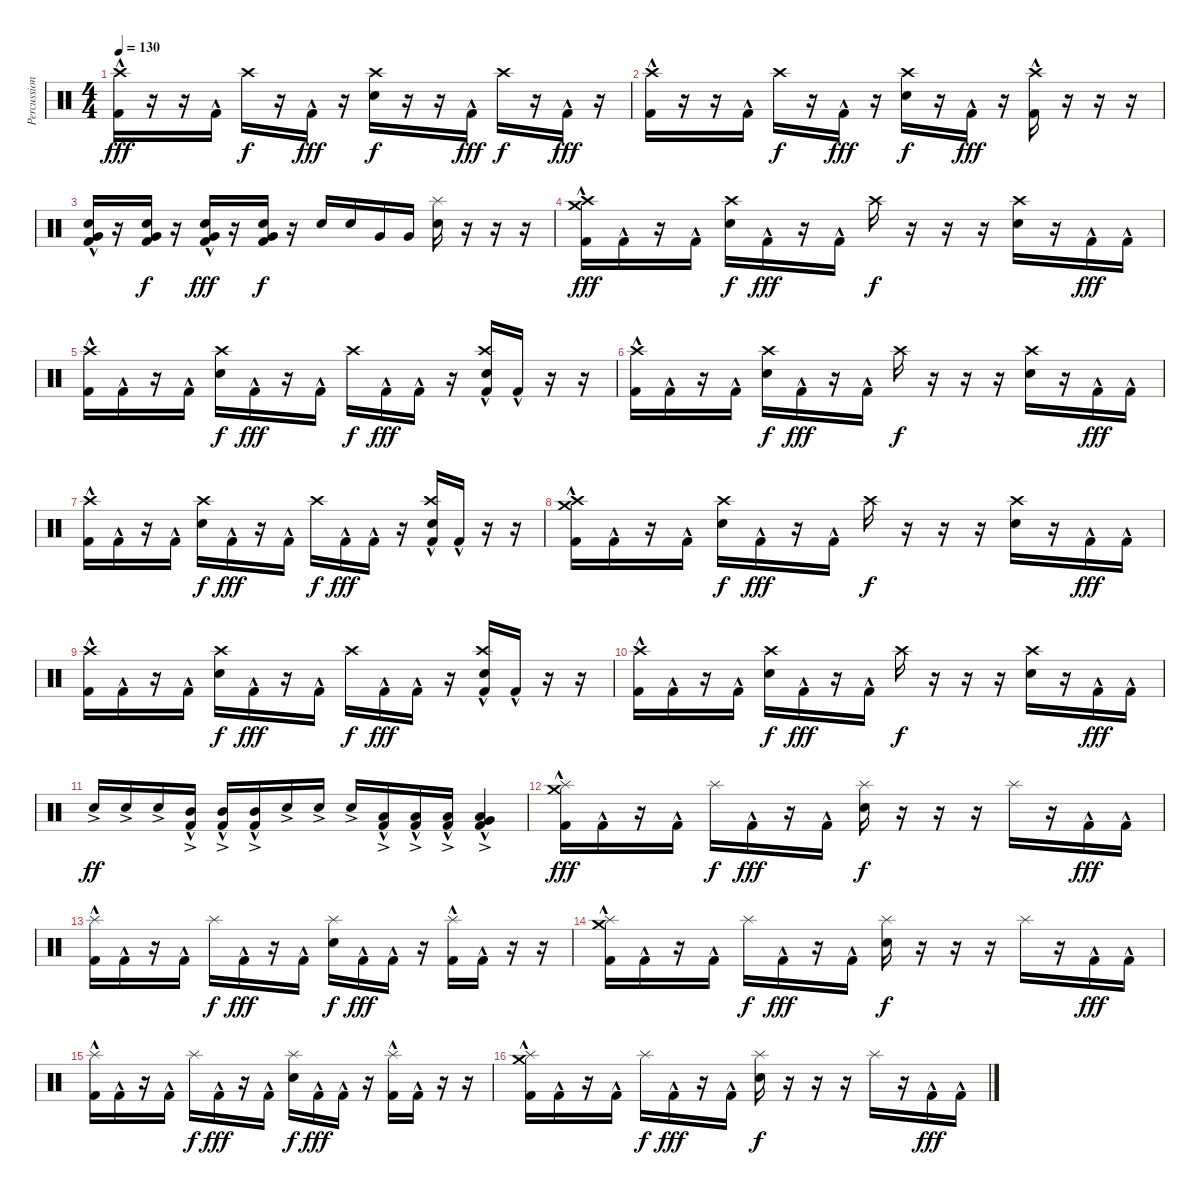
\track ("Percussion" "Percussion") {instrument percussion}
\staff {score}
\articulation defaults
\ts (4 4)
\tempo 130
\clef neutral
\ks c
("Kick (hit) 2"{hac} "Crash high (hit)").16{dy fff} r.16 r.16 "Kick (hit) 2"{hac}.16 "Crash high (hit)".16{dy f} r.16 "Kick (hit) 2"{hac}.16{dy fff} r.16 ("Electric Snare (hit)" "Crash high (hit)").16{dy f} r.16 r.16 "Kick (hit) 2"{hac}.16{dy fff} "Crash high (hit)".16{dy f} r.16 "Kick (hit) 2"{hac}.16{dy fff} r.16 |
("Kick (hit) 2"{hac} "Crash high (hit)").16 r.16 r.16 "Kick (hit) 2"{hac}.16 "Crash high (hit)".16{dy f} r.16 "Kick (hit) 2"{hac}.16{dy fff} r.16 ("Electric Snare (hit)" "Crash high (hit)").16{dy f} r.16 "Kick (hit) 2"{hac}.16{dy fff} r.16 ("Kick (hit) 2"{hac} "Crash high (hit)").16 r.16 r.16 r.16 |
("Kick (hit) 2"{hac} "Electric Snare (hit)"{hac} "Very Low Tom (hit)"{hac}).16 r.16 ("Kick (hit) 2" "Electric Snare (hit)" "Very Low Tom (hit)").16{dy f} r.16 ("Kick (hit) 2"{hac} "Electric Snare (hit)"{hac} "Very Low Tom (hit)"{hac}).16{dy fff} r.16 ("Kick (hit) 2" "Electric Snare (hit)" "Very Low Tom (hit)").16{dy f} r.16 "Electric Snare (hit)".16 "Electric Snare (hit)".16 "Very Low Tom (hit)".16 "Very Low Tom (hit)".16 ("Electric Snare (hit)" "Splash (hit)").16 r.16 r.16 r.16 |
("Kick (hit) 2"{hac} "Crash high (hit)" "Crash medium (hit)").16{dy fff} "Kick (hit) 2"{hac}.16 r.16 "Kick (hit) 2"{hac}.16 ("Electric Snare (hit)" "Crash high (hit)").16{dy f} "Kick (hit) 2"{hac}.16{dy fff} r.16 "Kick (hit) 2"{hac}.16 "Crash high (hit)".16{dy f} r.16 r.16 r.16 ("Electric Snare (hit)" "Crash high (hit)").16 r.16 "Kick (hit) 2"{hac}.16{dy fff} "Kick (hit) 2"{hac}.16 |
("Kick (hit) 2"{hac} "Crash high (hit)").16 "Kick (hit) 2"{hac}.16 r.16 "Kick (hit) 2"{hac}.16 ("Electric Snare (hit)" "Crash high (hit)").16{dy f} "Kick (hit) 2"{hac}.16{dy fff} r.16 "Kick (hit) 2"{hac}.16 "Crash high (hit)".16{dy f} "Kick (hit) 2"{hac}.16{dy fff} "Kick (hit) 2"{hac}.16 r.16 ("Kick (hit) 2"{hac} "Electric Snare (hit)" "Crash high (hit)").16 "Kick (hit) 2"{hac}.16 r.16 r.16 |
("Kick (hit) 2"{hac} "Crash high (hit)").16 "Kick (hit) 2"{hac}.16 r.16 "Kick (hit) 2"{hac}.16 ("Electric Snare (hit)" "Crash high (hit)").16{dy f} "Kick (hit) 2"{hac}.16{dy fff} r.16 "Kick (hit) 2"{hac}.16 "Crash high (hit)".16{dy f} r.16 r.16 r.16 ("Electric Snare (hit)" "Crash high (hit)").16 r.16 "Kick (hit) 2"{hac}.16{dy fff} "Kick (hit) 2"{hac}.16 |
("Kick (hit) 2"{hac} "Crash high (hit)").16 "Kick (hit) 2"{hac}.16 r.16 "Kick (hit) 2"{hac}.16 ("Electric Snare (hit)" "Crash high (hit)").16{dy f} "Kick (hit) 2"{hac}.16{dy fff} r.16 "Kick (hit) 2"{hac}.16 "Crash high (hit)".16{dy f} "Kick (hit) 2"{hac}.16{dy fff} "Kick (hit) 2"{hac}.16 r.16 ("Kick (hit) 2"{hac} "Electric Snare (hit)" "Crash high (hit)").16 "Kick (hit) 2"{hac}.16 r.16 r.16 |
("Kick (hit) 2"{hac} "Crash high (hit)" "Crash medium (hit)").16 "Kick (hit) 2"{hac}.16 r.16 "Kick (hit) 2"{hac}.16 ("Electric Snare (hit)" "Crash high (hit)").16{dy f} "Kick (hit) 2"{hac}.16{dy fff} r.16 "Kick (hit) 2"{hac}.16 "Crash high (hit)".16{dy f} r.16 r.16 r.16 ("Electric Snare (hit)" "Crash high (hit)").16 r.16 "Kick (hit) 2"{hac}.16{dy fff} "Kick (hit) 2"{hac}.16 |
("Kick (hit) 2"{hac} "Crash high (hit)").16 "Kick (hit) 2"{hac}.16 r.16 "Kick (hit) 2"{hac}.16 ("Electric Snare (hit)" "Crash high (hit)").16{dy f} "Kick (hit) 2"{hac}.16{dy fff} r.16 "Kick (hit) 2"{hac}.16 "Crash high (hit)".16{dy f} "Kick (hit) 2"{hac}.16{dy fff} "Kick (hit) 2"{hac}.16 r.16 ("Kick (hit) 2"{hac} "Electric Snare (hit)" "Crash high (hit)").16 "Kick (hit) 2"{hac}.16 r.16 r.16 |
("Kick (hit) 2"{hac} "Crash high (hit)").16 "Kick (hit) 2"{hac}.16 r.16 "Kick (hit) 2"{hac}.16 ("Electric Snare (hit)" "Crash high (hit)").16{dy f} "Kick (hit) 2"{hac}.16{dy fff} r.16 "Kick (hit) 2"{hac}.16 "Crash high (hit)".16{dy f} r.16 r.16 r.16 ("Electric Snare (hit)" "Crash high (hit)").16 r.16 "Kick (hit) 2"{hac}.16{dy fff} "Kick (hit) 2"{hac}.16 |
"Electric Snare (hit)"{ac}.16{dy ff} "Electric Snare (hit)"{ac}.16 "Electric Snare (hit)"{ac}.16 ("Kick (hit) 2"{hac} "Mid Tom (hit)"{ac}).16 ("Kick (hit) 2"{hac} "Mid Tom (hit)"{ac}).16 ("Kick (hit) 2"{hac} "Mid Tom (hit)"{ac}).16 "Electric Snare (hit)"{ac}.16 "Electric Snare (hit)"{ac}.16 "Electric Snare (hit)"{ac}.16 ("Kick (hit) 2"{hac} "Low Tom (hit)"{ac}).16 ("Kick (hit) 2"{hac} "Low Tom (hit)"{ac}).16 ("Kick (hit) 2"{hac} "Low Tom (hit)"{ac}).16 ("Kick (hit) 2"{hac} "Very Low Tom (hit)"{ac} "Low Tom (hit)"{ac}).4 |
("Kick (hit) 2"{hac} "Splash (hit)" "Crash medium (hit)").16{dy fff} "Kick (hit) 2"{hac}.16 r.16 "Kick (hit) 2"{hac}.16 "Splash (hit)".16{dy f} "Kick (hit) 2"{hac}.16{dy fff} r.16 "Kick (hit) 2"{hac}.16 ("Electric Snare (hit)" "Splash (hit)").16{dy f} r.16 r.16 r.16 "Splash (hit)".16 r.16 "Kick (hit) 2"{hac}.16{dy fff} "Kick (hit) 2"{hac}.16 |
("Kick (hit) 2"{hac} "Splash (hit)").16 "Kick (hit) 2"{hac}.16 r.16 "Kick (hit) 2"{hac}.16 "Splash (hit)".16{dy f} "Kick (hit) 2"{hac}.16{dy fff} r.16 "Kick (hit) 2"{hac}.16 ("Electric Snare (hit)" "Splash (hit)").16{dy f} "Kick (hit) 2"{hac}.16{dy fff} "Kick (hit) 2"{hac}.16 r.16 ("Kick (hit) 2"{hac} "Splash (hit)").16 "Kick (hit) 2"{hac}.16 r.16 r.16 |
("Kick (hit) 2"{hac} "Splash (hit)" "Crash medium (hit)").16 "Kick (hit) 2"{hac}.16 r.16 "Kick (hit) 2"{hac}.16 "Splash (hit)".16{dy f} "Kick (hit) 2"{hac}.16{dy fff} r.16 "Kick (hit) 2"{hac}.16 ("Electric Snare (hit)" "Splash (hit)").16{dy f} r.16 r.16 r.16 "Splash (hit)".16 r.16 "Kick (hit) 2"{hac}.16{dy fff} "Kick (hit) 2"{hac}.16 |
("Kick (hit) 2"{hac} "Splash (hit)").16 "Kick (hit) 2"{hac}.16 r.16 "Kick (hit) 2"{hac}.16 "Splash (hit)".16{dy f} "Kick (hit) 2"{hac}.16{dy fff} r.16 "Kick (hit) 2"{hac}.16 ("Electric Snare (hit)" "Splash (hit)").16{dy f} "Kick (hit) 2"{hac}.16{dy fff} "Kick (hit) 2"{hac}.16 r.16 ("Kick (hit) 2"{hac} "Splash (hit)").16 "Kick (hit) 2"{hac}.16 r.16 r.16 |
("Kick (hit) 2"{hac} "Splash (hit)" "Crash medium (hit)").16 "Kick (hit) 2"{hac}.16 r.16 "Kick (hit) 2"{hac}.16 "Splash (hit)".16{dy f} "Kick (hit) 2"{hac}.16{dy fff} r.16 "Kick (hit) 2"{hac}.16 ("Electric Snare (hit)" "Splash (hit)").16{dy f} r.16 r.16 r.16 "Splash (hit)".16 r.16 "Kick (hit) 2"{hac}.16{dy fff} "Kick (hit) 2"{hac}.16
